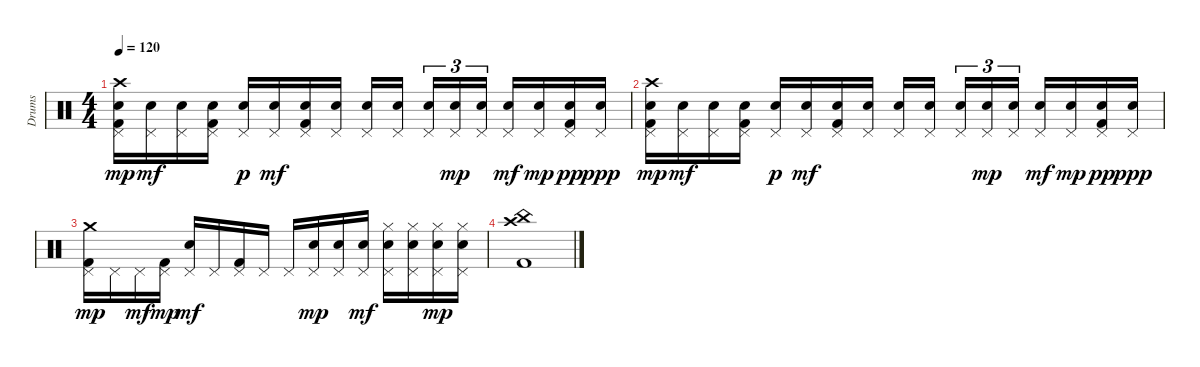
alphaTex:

\track ("Drums" "Drums") {instrument percussion}
\staff {score}
\articulation defaults
\ts (4 4)
\tempo 120
\clef neutral
\ks c
("Electric Snare (hit)" "Pedal Hi-Hat (hit)" "Kick (hit) 2" "Crash high (hit)").16{dy mp} ("Electric Snare (hit)" "Pedal Hi-Hat (hit)").16{dy mf} ("Electric Snare (hit)" "Pedal Hi-Hat (hit)").16 ("Electric Snare (hit)" "Pedal Hi-Hat (hit)" "Kick (hit) 2").16 ("Pedal Hi-Hat (hit)" "Electric Snare (hit)").16{dy p} ("Electric Snare (hit)" "Pedal Hi-Hat (hit)").16{dy mf} ("Electric Snare (hit)" "Pedal Hi-Hat (hit)" "Kick (hit) 2").16 ("Electric Snare (hit)" "Pedal Hi-Hat (hit)").16 ("Electric Snare (hit)" "Pedal Hi-Hat (hit)").16 ("Electric Snare (hit)" "Pedal Hi-Hat (hit)").16 ("Electric Snare (hit)" "Pedal Hi-Hat (hit)").16{tu (3 2)} ("Electric Snare (hit)" "Pedal Hi-Hat (hit)").16{tu (3 2) dy mp} ("Electric Snare (hit)" "Pedal Hi-Hat (hit)").16{tu (3 2)} ("Electric Snare (hit)" "Pedal Hi-Hat (hit)").16{dy mf} ("Electric Snare (hit)" "Pedal Hi-Hat (hit)").16{dy mp} ("Electric Snare (hit)" "Pedal Hi-Hat (hit)" "Kick (hit) 2").16{dy pp} ("Electric Snare (hit)" "Pedal Hi-Hat (hit)").16{dy ppp} |
("Electric Snare (hit)" "Pedal Hi-Hat (hit)" "Kick (hit) 2" "Crash high (hit)").16{dy mp} ("Electric Snare (hit)" "Pedal Hi-Hat (hit)").16{dy mf} ("Electric Snare (hit)" "Pedal Hi-Hat (hit)").16 ("Electric Snare (hit)" "Pedal Hi-Hat (hit)" "Kick (hit) 2").16 ("Pedal Hi-Hat (hit)" "Electric Snare (hit)").16{dy p} ("Electric Snare (hit)" "Pedal Hi-Hat (hit)").16{dy mf} ("Electric Snare (hit)" "Pedal Hi-Hat (hit)" "Kick (hit) 2").16 ("Electric Snare (hit)" "Pedal Hi-Hat (hit)").16 ("Electric Snare (hit)" "Pedal Hi-Hat (hit)").16 ("Electric Snare (hit)" "Pedal Hi-Hat (hit)").16 ("Electric Snare (hit)" "Pedal Hi-Hat (hit)").16{tu (3 2)} ("Electric Snare (hit)" "Pedal Hi-Hat (hit)").16{tu (3 2) dy mp} ("Electric Snare (hit)" "Pedal Hi-Hat (hit)").16{tu (3 2)} ("Electric Snare (hit)" "Pedal Hi-Hat (hit)").16{dy mf} ("Electric Snare (hit)" "Pedal Hi-Hat (hit)").16{dy mp} ("Electric Snare (hit)" "Pedal Hi-Hat (hit)" "Kick (hit) 2").16{dy pp} ("Electric Snare (hit)" "Pedal Hi-Hat (hit)").16{dy ppp} |
("Pedal Hi-Hat (hit)" "Crash medium (hit)" "Kick (hit) 2").16{dy mp} "Pedal Hi-Hat (hit)".16 "Pedal Hi-Hat (hit)".16{dy mf} ("Pedal Hi-Hat (hit)" "Kick (hit) 2").16{dy mp} ("Pedal Hi-Hat (hit)" "Electric Snare (hit)").16{dy mf} "Pedal Hi-Hat (hit)".16 ("Pedal Hi-Hat (hit)" "Kick (hit) 2").16 "Pedal Hi-Hat (hit)".16 "Pedal Hi-Hat (hit)".16 ("Pedal Hi-Hat (hit)" "Electric Snare (hit)").16{dy mp} ("Pedal Hi-Hat (hit)" "Electric Snare (hit)").16 ("Pedal Hi-Hat (hit)" "Electric Snare (hit)").16{dy mf} ("Pedal Hi-Hat (hit)" "Electric Snare (hit)" "Hi-Hat (closed)").16 ("Pedal Hi-Hat (hit)" "Electric Snare (hit)" "Hi-Hat (closed)").16 ("Pedal Hi-Hat (hit)" "Electric Snare (hit)" "Hi-Hat (closed)").16{dy mp} ("Pedal Hi-Hat (hit)" "Electric Snare (hit)" "Hi-Hat (closed)").16 |
("Crash high (hit)" "China (hit)" "Kick (hit) 2").1
